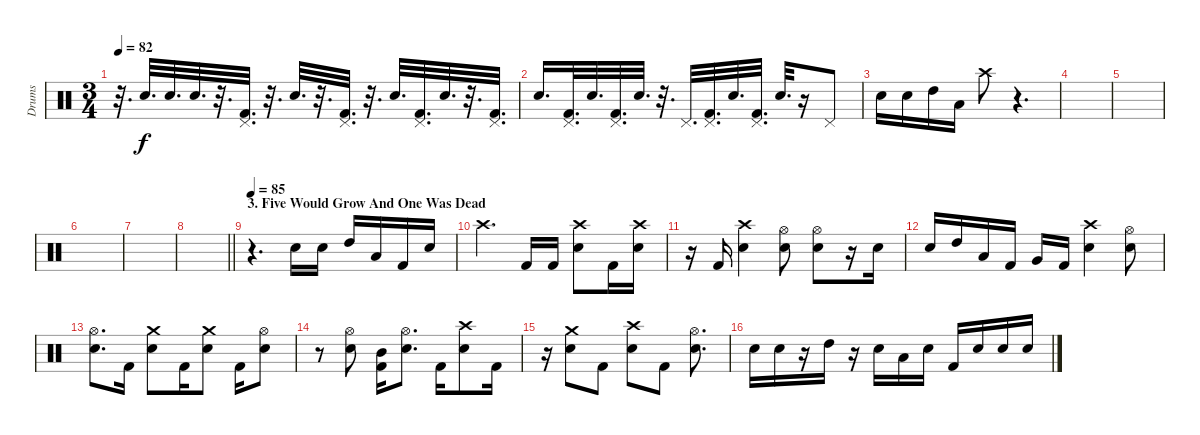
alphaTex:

\track ("Drums" "Drums") {instrument percussion}
\staff {score}
\articulation defaults
\ts (3 4)
\tempo 82
\clef neutral
\ks c
r.32{d dy f} "Electric Snare (hit)".32{d} "Electric Snare (hit)".32{d} "Electric Snare (hit)".32{d} r.32{d} ("Pedal Hi-Hat (hit)" "Kick (hit) 2").32{d} r.32{d} "Electric Snare (hit)".32{d} r.32{d} ("Pedal Hi-Hat (hit)" "Kick (hit) 2").32{d} r.32{d} "Electric Snare (hit)".32{d} ("Pedal Hi-Hat (hit)" "Kick (hit) 2").32{d} "Electric Snare (hit)".32{d} r.32{d} ("Pedal Hi-Hat (hit)" "Kick (hit) 2").32{d} |
"Electric Snare (hit)".16{d} ("Pedal Hi-Hat (hit)" "Kick (hit) 2").32{d} "Electric Snare (hit)".32{d} ("Pedal Hi-Hat (hit)" "Kick (hit) 2").32{d} "Electric Snare (hit)".32{d} r.32{d} "Pedal Hi-Hat (hit)".32{d} ("Pedal Hi-Hat (hit)" "Kick (hit) 2").32{d} "Electric Snare (hit)".32{d} ("Pedal Hi-Hat (hit)" "Kick (hit) 2").32{d} "Electric Snare (hit)".32{d} r.16 "Pedal Hi-Hat (hit)".8 |
"Electric Snare (hit)".16 "Electric Snare (hit)".16 "High Tom (hit)".16 "Low Tom (hit)".16 "Crash high (hit)".8 r.4{d} |
|
|
|
|
\barLineRight lightlight
|
\section ("" "3. Five Would Grow And One Was Dead")
\tempo 85
r.4{d} "Electric Snare (hit)".16 "Electric Snare (hit)".16 "High Tom (hit)".16 "Low Tom (hit)".16 "Kick (hit) 2".16 "Electric Snare (hit)".16 |
"Crash high (hit)".4{d} "Kick (hit) 2".16 "Kick (hit) 2".16 ("Crash high (hit)" "Electric Snare (hit)").8 "Kick (hit) 2".16 ("Crash high (hit)" "Electric Snare (hit)").16 |
r.16 "Kick (hit) 2".16 ("Crash high (hit)" "Electric Snare (hit)").4 ("Hi-Hat (open)" "Electric Snare (hit)").8 ("Hi-Hat (open)" "Electric Snare (hit)").8 r.16 "Electric Snare (hit)".16 |
"Electric Snare (hit)".16 "High Tom (hit)".16 "Low Tom (hit)".16 "Kick (hit) 2".16 "Very Low Tom (hit)".16 "Kick (hit) 2".16 ("Crash high (hit)" "Electric Snare (hit)").4 ("Hi-Hat (open)" "Electric Snare (hit)").8 |
("Hi-Hat (open)" "Electric Snare (hit)").8{d} "Kick (hit) 2".16 ("Crash medium (hit)" "Electric Snare (hit)").8 "Kick (hit) 2".16 ("Crash medium (hit)" "Electric Snare (hit)").8 "Kick (hit) 2".16 ("Hi-Hat (open)" "Electric Snare (hit)").8 |
r.8 ("Hi-Hat (open)" "Electric Snare (hit)").8 ("Mid Tom (hit)" "Kick (hit) 2").16 ("Hi-Hat (open)" "Electric Snare (hit)").8{d} "Kick (hit) 2".16 ("Crash high (hit)" "Electric Snare (hit)").8 "Kick (hit) 2".16 |
r.16 ("Crash medium (hit)" "Electric Snare (hit)").8 "Kick (hit) 2".8 ("Crash high (hit)" "Electric Snare (hit)").8 "Kick (hit) 2".8 ("Hi-Hat (open)" "Electric Snare (hit)").8{d} |
"Electric Snare (hit)".16 "Electric Snare (hit)".16 r.16 "High Tom (hit)".16 r.16 "Electric Snare (hit)".16 "Low Tom (hit)".16 "Electric Snare (hit)".16 "Kick (hit) 2".16 "Electric Snare (hit)".16 "Electric Snare (hit)".16 "Electric Snare (hit)".16
